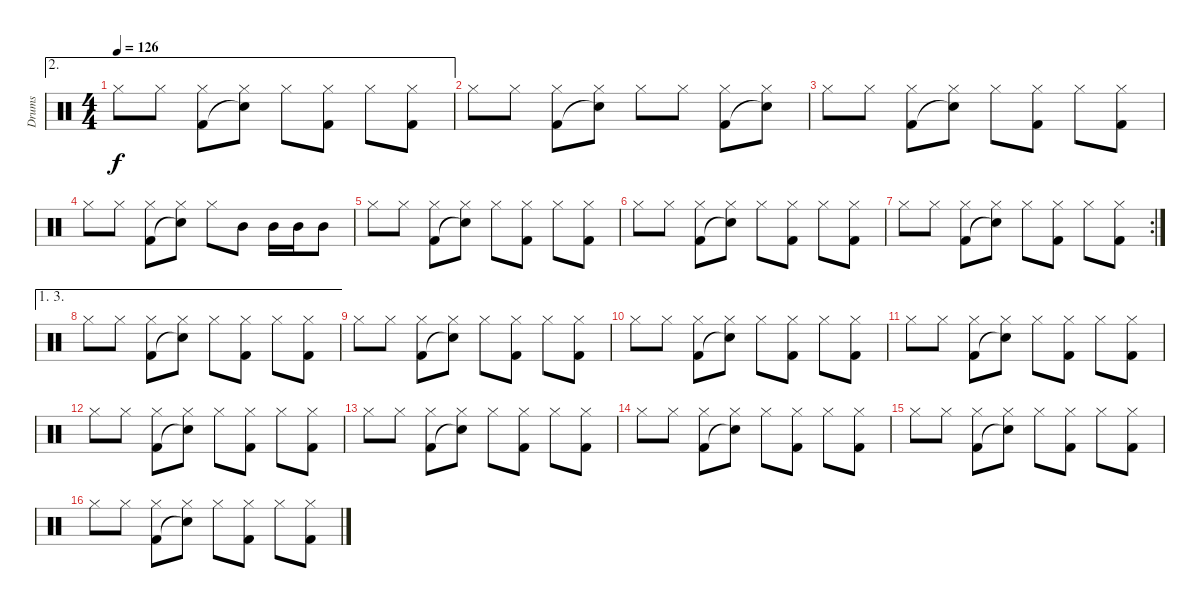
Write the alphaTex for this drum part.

\track ("Drums" "Drums") {instrument percussion}
\staff {score}
\articulation defaults
\ae 2
\ts (4 4)
\tempo 126
\clef neutral
\ks c "Hi-Hat (closed)".8{dy f} "Hi-Hat (closed)".8
("Hi-Hat (closed)" "Kick (hit) 2").8 ("Hi-Hat (closed)" "Snare (hit)"{t}).8 "Hi-Hat (closed)".8 ("Hi-Hat (closed)" "Kick (hit) 2").8 "Hi-Hat (closed)".8 ("Hi-Hat (closed)" "Kick (hit) 2").8 |
"Hi-Hat (closed)".8 "Hi-Hat (closed)".8 ("Hi-Hat (closed)" "Kick (hit) 2").8 ("Hi-Hat (closed)" "Snare (hit)"{t}).8 "Hi-Hat (closed)".8 "Hi-Hat (closed)".8 ("Hi-Hat (closed)" "Kick (hit) 2").8 ("Hi-Hat (closed)" "Snare (hit)"{t}).8 |
"Hi-Hat (closed)".8 "Hi-Hat (closed)".8 ("Hi-Hat (closed)" "Kick (hit) 2").8 ("Hi-Hat (closed)" "Snare (hit)"{t}).8 "Hi-Hat (closed)".8 ("Hi-Hat (closed)" "Kick (hit) 2").8 "Hi-Hat (closed)".8 ("Hi-Hat (closed)" "Kick (hit) 2").8 |
"Hi-Hat (closed)".8 "Hi-Hat (closed)".8 ("Hi-Hat (closed)" "Kick (hit) 2").8 ("Hi-Hat (closed)" "Snare (hit)"{t}).8 "Hi-Hat (closed)".8 "Mid Tom (hit)".8 "Mid Tom (hit)".16 "Mid Tom (hit)".16 "Mid Tom (hit)".8 |
"Hi-Hat (closed)".8 "Hi-Hat (closed)".8 ("Hi-Hat (closed)" "Kick (hit) 2").8 ("Hi-Hat (closed)" "Snare (hit)"{t}).8 "Hi-Hat (closed)".8 ("Hi-Hat (closed)" "Kick (hit) 2").8 "Hi-Hat (closed)".8 ("Hi-Hat (closed)" "Kick (hit) 2").8 |
"Hi-Hat (closed)".8 "Hi-Hat (closed)".8 ("Hi-Hat (closed)" "Kick (hit) 2").8 ("Hi-Hat (closed)" "Snare (hit)"{t}).8 "Hi-Hat (closed)".8 ("Hi-Hat (closed)" "Kick (hit) 2").8 "Hi-Hat (closed)".8 ("Hi-Hat (closed)" "Kick (hit) 2").8 |
\rc 2 "Hi-Hat (closed)".8 "Hi-Hat (closed)".8
("Hi-Hat (closed)" "Kick (hit) 2").8 ("Hi-Hat (closed)" "Snare (hit)"{t}).8 "Hi-Hat (closed)".8 ("Hi-Hat (closed)" "Kick (hit) 2").8 "Hi-Hat (closed)".8 ("Hi-Hat (closed)" "Kick (hit) 2").8 |
\ae (1 3)
"Hi-Hat (closed)".8 "Hi-Hat (closed)".8 ("Hi-Hat (closed)" "Kick (hit) 2").8 ("Hi-Hat (closed)" "Snare (hit)"{t}).8 "Hi-Hat (closed)".8 ("Hi-Hat (closed)" "Kick (hit) 2").8 "Hi-Hat (closed)".8 ("Hi-Hat (closed)" "Kick (hit) 2").8 |
"Hi-Hat (closed)".8 "Hi-Hat (closed)".8 ("Hi-Hat (closed)" "Kick (hit) 2").8 ("Hi-Hat (closed)" "Snare (hit)"{t}).8 "Hi-Hat (closed)".8 ("Hi-Hat (closed)" "Kick (hit) 2").8 "Hi-Hat (closed)".8 ("Hi-Hat (closed)" "Kick (hit) 2").8 |
"Hi-Hat (closed)".8 "Hi-Hat (closed)".8 ("Hi-Hat (closed)" "Kick (hit) 2").8 ("Hi-Hat (closed)" "Snare (hit)"{t}).8 "Hi-Hat (closed)".8 ("Hi-Hat (closed)" "Kick (hit) 2").8 "Hi-Hat (closed)".8 ("Hi-Hat (closed)" "Kick (hit) 2").8 |
"Hi-Hat (closed)".8 "Hi-Hat (closed)".8 ("Hi-Hat (closed)" "Kick (hit) 2").8 ("Hi-Hat (closed)" "Snare (hit)"{t}).8 "Hi-Hat (closed)".8 ("Hi-Hat (closed)" "Kick (hit) 2").8 "Hi-Hat (closed)".8 ("Hi-Hat (closed)" "Kick (hit) 2").8 |
"Hi-Hat (closed)".8 "Hi-Hat (closed)".8 ("Hi-Hat (closed)" "Kick (hit) 2").8 ("Hi-Hat (closed)" "Snare (hit)"{t}).8 "Hi-Hat (closed)".8 ("Hi-Hat (closed)" "Kick (hit) 2").8 "Hi-Hat (closed)".8 ("Hi-Hat (closed)" "Kick (hit) 2").8 |
"Hi-Hat (closed)".8 "Hi-Hat (closed)".8 ("Hi-Hat (closed)" "Kick (hit) 2").8 ("Hi-Hat (closed)" "Snare (hit)"{t}).8 "Hi-Hat (closed)".8 ("Hi-Hat (closed)" "Kick (hit) 2").8 "Hi-Hat (closed)".8 ("Hi-Hat (closed)" "Kick (hit) 2").8 |
"Hi-Hat (closed)".8 "Hi-Hat (closed)".8 ("Hi-Hat (closed)" "Kick (hit) 2").8 ("Hi-Hat (closed)" "Snare (hit)"{t}).8 "Hi-Hat (closed)".8 ("Hi-Hat (closed)" "Kick (hit) 2").8 "Hi-Hat (closed)".8 ("Hi-Hat (closed)" "Kick (hit) 2").8 |
"Hi-Hat (closed)".8 "Hi-Hat (closed)".8 ("Hi-Hat (closed)" "Kick (hit) 2").8 ("Hi-Hat (closed)" "Snare (hit)"{t}).8 "Hi-Hat (closed)".8 ("Hi-Hat (closed)" "Kick (hit) 2").8 "Hi-Hat (closed)".8 ("Hi-Hat (closed)" "Kick (hit) 2").8 |
"Hi-Hat (closed)".8 "Hi-Hat (closed)".8 ("Hi-Hat (closed)" "Kick (hit) 2").8 ("Hi-Hat (closed)" "Snare (hit)"{t}).8 "Hi-Hat (closed)".8 ("Hi-Hat (closed)" "Kick (hit) 2").8 "Hi-Hat (closed)".8 ("Hi-Hat (closed)" "Kick (hit) 2").8
